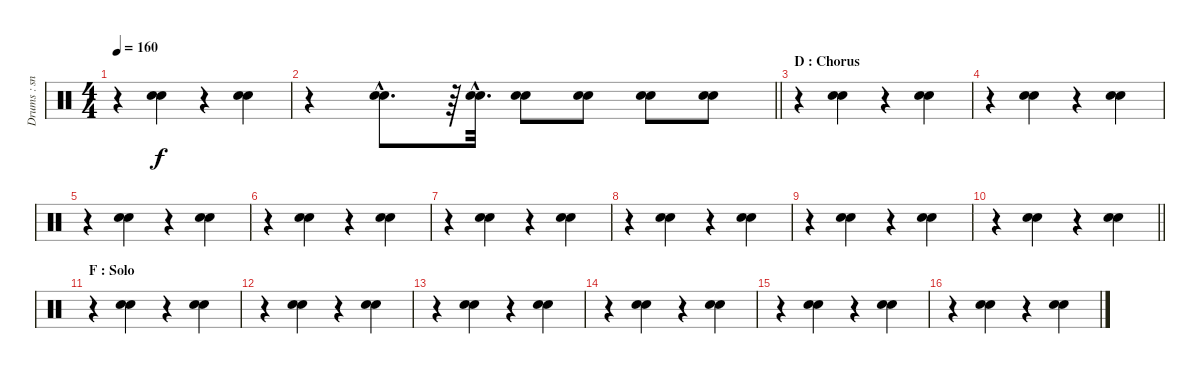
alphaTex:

\track ("Drums : snare" "Drums : sn") {instrument percussion}
\staff {score}
\articulation defaults
\ts (4 4)
\tempo 160
\clef neutral
\ks c
r.4{dy f} ("Snare (hit) 2" "Electric Snare (hit)").4 r.4 ("Snare (hit) 2" "Electric Snare (hit)").4 |
\barLineRight lightlight
r.4 ("Snare (hit) 2"{hac} "Electric Snare (hit)"{hac}).8{d} r.64 ("Snare (hit) 2"{hac} "Electric Snare (hit)"{hac}).32{d} ("Snare (hit) 2" "Electric Snare (hit)").8 ("Snare (hit) 2" "Electric Snare (hit)").8 ("Snare (hit) 2" "Electric Snare (hit)").8 ("Snare (hit) 2" "Electric Snare (hit)").8 |
\section ("" "D : Chorus")
r.4 ("Snare (hit) 2" "Electric Snare (hit)").4 r.4 ("Snare (hit) 2" "Electric Snare (hit)").4 |
r.4 ("Snare (hit) 2" "Electric Snare (hit)").4 r.4 ("Snare (hit) 2" "Electric Snare (hit)").4 |
r.4 ("Snare (hit) 2" "Electric Snare (hit)").4 r.4 ("Snare (hit) 2" "Electric Snare (hit)").4 |
r.4 ("Snare (hit) 2" "Electric Snare (hit)").4 r.4 ("Snare (hit) 2" "Electric Snare (hit)").4 |
r.4 ("Snare (hit) 2" "Electric Snare (hit)").4 r.4 ("Snare (hit) 2" "Electric Snare (hit)").4 |
r.4 ("Snare (hit) 2" "Electric Snare (hit)").4 r.4 ("Snare (hit) 2" "Electric Snare (hit)").4 |
r.4 ("Snare (hit) 2" "Electric Snare (hit)").4 r.4 ("Snare (hit) 2" "Electric Snare (hit)").4 |
\barLineRight lightlight
r.4 ("Snare (hit) 2" "Electric Snare (hit)").4 r.4 ("Snare (hit) 2" "Electric Snare (hit)").4 |
\section ("" "F : Solo")
r.4 ("Snare (hit) 2" "Electric Snare (hit)").4 r.4 ("Snare (hit) 2" "Electric Snare (hit)").4 |
r.4 ("Snare (hit) 2" "Electric Snare (hit)").4 r.4 ("Snare (hit) 2" "Electric Snare (hit)").4 |
r.4 ("Snare (hit) 2" "Electric Snare (hit)").4 r.4 ("Snare (hit) 2" "Electric Snare (hit)").4 |
r.4 ("Snare (hit) 2" "Electric Snare (hit)").4 r.4 ("Snare (hit) 2" "Electric Snare (hit)").4 |
r.4 ("Snare (hit) 2" "Electric Snare (hit)").4 r.4 ("Snare (hit) 2" "Electric Snare (hit)").4 |
r.4 ("Snare (hit) 2" "Electric Snare (hit)").4 r.4 ("Snare (hit) 2" "Electric Snare (hit)").4
